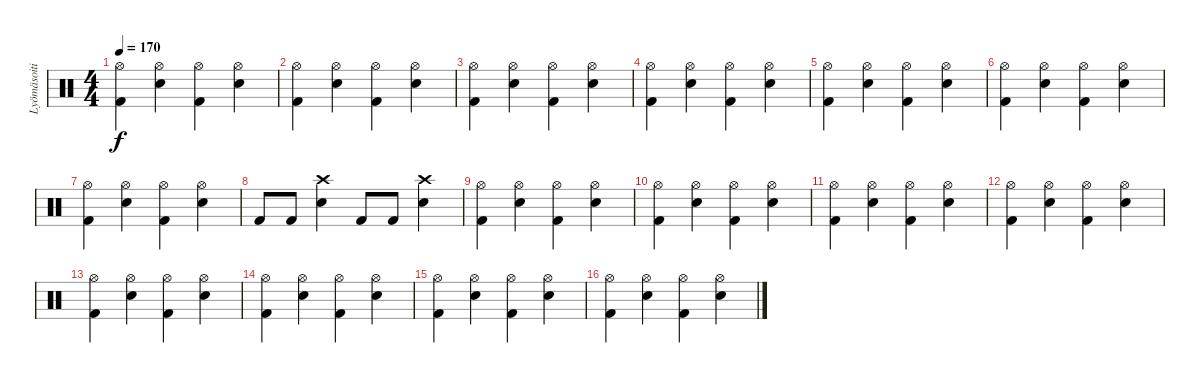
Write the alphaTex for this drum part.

\track ("Lyömäsoitin" "Lyömäsoiti") {instrument percussion}
\staff {score}
\articulation defaults
\ts (4 4)
\tempo 170
\clef neutral
\ks c
("Hi-Hat (open)" "Kick (hit) 2").4{dy f} ("Hi-Hat (open)" "Snare (hit) 2").4 ("Hi-Hat (open)" "Kick (hit) 2").4 ("Hi-Hat (open)" "Snare (hit) 2").4 |
("Hi-Hat (open)" "Kick (hit) 2").4 ("Hi-Hat (open)" "Snare (hit) 2").4 ("Hi-Hat (open)" "Kick (hit) 2").4 ("Hi-Hat (open)" "Snare (hit) 2").4 |
("Hi-Hat (open)" "Kick (hit) 2").4 ("Hi-Hat (open)" "Snare (hit) 2").4 ("Hi-Hat (open)" "Kick (hit) 2").4 ("Hi-Hat (open)" "Snare (hit) 2").4 |
("Hi-Hat (open)" "Kick (hit) 2").4 ("Hi-Hat (open)" "Snare (hit) 2").4 ("Hi-Hat (open)" "Kick (hit) 2").4 ("Hi-Hat (open)" "Snare (hit) 2").4 |
("Hi-Hat (open)" "Kick (hit) 2").4 ("Hi-Hat (open)" "Snare (hit) 2").4 ("Hi-Hat (open)" "Kick (hit) 2").4 ("Hi-Hat (open)" "Snare (hit) 2").4 |
("Hi-Hat (open)" "Kick (hit) 2").4 ("Hi-Hat (open)" "Snare (hit) 2").4 ("Hi-Hat (open)" "Kick (hit) 2").4 ("Hi-Hat (open)" "Snare (hit) 2").4 |
("Hi-Hat (open)" "Kick (hit) 2").4 ("Hi-Hat (open)" "Snare (hit) 2").4 ("Hi-Hat (open)" "Kick (hit) 2").4 ("Hi-Hat (open)" "Snare (hit) 2").4 |
"Kick (hit) 2".8 "Kick (hit) 2".8 ("Crash high (hit)" "Snare (hit) 2").4 "Kick (hit) 2".8 "Kick (hit) 2".8 ("Crash high (hit)" "Snare (hit) 2").4 |
("Hi-Hat (open)" "Kick (hit) 2").4 ("Hi-Hat (open)" "Snare (hit) 2").4 ("Hi-Hat (open)" "Kick (hit) 2").4 ("Hi-Hat (open)" "Snare (hit) 2").4 |
("Hi-Hat (open)" "Kick (hit) 2").4 ("Hi-Hat (open)" "Snare (hit) 2").4 ("Hi-Hat (open)" "Kick (hit) 2").4 ("Hi-Hat (open)" "Snare (hit) 2").4 |
("Hi-Hat (open)" "Kick (hit) 2").4 ("Hi-Hat (open)" "Snare (hit) 2").4 ("Hi-Hat (open)" "Kick (hit) 2").4 ("Hi-Hat (open)" "Snare (hit) 2").4 |
("Hi-Hat (open)" "Kick (hit) 2").4 ("Hi-Hat (open)" "Snare (hit) 2").4 ("Hi-Hat (open)" "Kick (hit) 2").4 ("Hi-Hat (open)" "Snare (hit) 2").4 |
("Hi-Hat (open)" "Kick (hit) 2").4 ("Hi-Hat (open)" "Snare (hit) 2").4 ("Hi-Hat (open)" "Kick (hit) 2").4 ("Hi-Hat (open)" "Snare (hit) 2").4 |
("Hi-Hat (open)" "Kick (hit) 2").4 ("Hi-Hat (open)" "Snare (hit) 2").4 ("Hi-Hat (open)" "Kick (hit) 2").4 ("Hi-Hat (open)" "Snare (hit) 2").4 |
("Hi-Hat (open)" "Kick (hit) 2").4 ("Hi-Hat (open)" "Snare (hit) 2").4 ("Hi-Hat (open)" "Kick (hit) 2").4 ("Hi-Hat (open)" "Snare (hit) 2").4 |
("Hi-Hat (open)" "Kick (hit) 2").4 ("Hi-Hat (open)" "Snare (hit) 2").4 ("Hi-Hat (open)" "Kick (hit) 2").4 ("Hi-Hat (open)" "Snare (hit) 2").4
